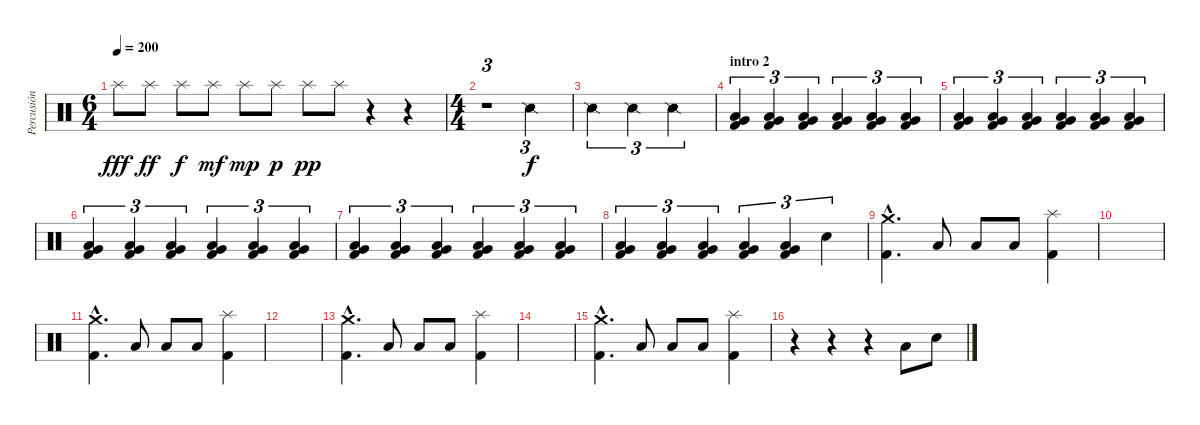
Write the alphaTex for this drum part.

\track ("Percusión" "Percusión") {instrument percussion}
\staff {score}
\articulation defaults
\ts (6 4)
\tempo 200
\clef neutral
\ks c "Splash (hit)".8{dy fff} "Splash (hit)".8{dy ff} "Splash (hit)".8{dy f} "Splash (hit)".8{dy mf} "Splash (hit)".8{dy mp} "Splash (hit)".8{dy p} "Splash (hit)".8{dy pp} "Splash (hit)".8
r.4 r.4 |
\ts (4 4)
r.1{tu (3 2)} "Snare (side stick) 2".2{tu (3 2) dy f} |
"Snare (side stick) 2".2{tu (3 2)} "Snare (side stick) 2".2{tu (3 2)} "Snare (side stick) 2".2{tu (3 2)} |
\section ("" "intro 2")
("Very Low Tom (hit)" "Low Floor Tom (hit)" "Kick (hit) 2").4{tu (3 2)} ("Very Low Tom (hit)" "Low Floor Tom (hit)" "Kick (hit) 2").4{tu (3 2)} ("Very Low Tom (hit)" "Low Floor Tom (hit)" "Kick (hit) 2").4{tu (3 2)} ("Very Low Tom (hit)" "Low Floor Tom (hit)" "Kick (hit) 2").4{tu (3 2)} ("Very Low Tom (hit)" "Low Floor Tom (hit)" "Kick (hit) 2").4{tu (3 2)} ("Very Low Tom (hit)" "Low Floor Tom (hit)" "Kick (hit) 2").4{tu (3 2)} |
("Very Low Tom (hit)" "Low Floor Tom (hit)" "Kick (hit) 2").4{tu (3 2)} ("Very Low Tom (hit)" "Low Floor Tom (hit)" "Kick (hit) 2").4{tu (3 2)} ("Very Low Tom (hit)" "Low Floor Tom (hit)" "Kick (hit) 2").4{tu (3 2)} ("Very Low Tom (hit)" "Low Floor Tom (hit)" "Kick (hit) 2").4{tu (3 2)} ("Very Low Tom (hit)" "Low Floor Tom (hit)" "Kick (hit) 2").4{tu (3 2)} ("Very Low Tom (hit)" "Low Floor Tom (hit)" "Kick (hit) 2").4{tu (3 2)} |
("Very Low Tom (hit)" "Low Floor Tom (hit)" "Kick (hit) 2").4{tu (3 2)} ("Very Low Tom (hit)" "Low Floor Tom (hit)" "Kick (hit) 2").4{tu (3 2)} ("Very Low Tom (hit)" "Low Floor Tom (hit)" "Kick (hit) 2").4{tu (3 2)} ("Very Low Tom (hit)" "Low Floor Tom (hit)" "Kick (hit) 2").4{tu (3 2)} ("Very Low Tom (hit)" "Low Floor Tom (hit)" "Kick (hit) 2").4{tu (3 2)} ("Very Low Tom (hit)" "Low Floor Tom (hit)" "Kick (hit) 2").4{tu (3 2)} |
("Very Low Tom (hit)" "Low Floor Tom (hit)" "Kick (hit) 2").4{tu (3 2)} ("Very Low Tom (hit)" "Low Floor Tom (hit)" "Kick (hit) 2").4{tu (3 2)} ("Very Low Tom (hit)" "Low Floor Tom (hit)" "Kick (hit) 2").4{tu (3 2)} ("Very Low Tom (hit)" "Low Floor Tom (hit)" "Kick (hit) 2").4{tu (3 2)} ("Very Low Tom (hit)" "Low Floor Tom (hit)" "Kick (hit) 2").4{tu (3 2)} ("Very Low Tom (hit)" "Low Floor Tom (hit)" "Kick (hit) 2").4{tu (3 2)} |
("Very Low Tom (hit)" "Low Floor Tom (hit)" "Kick (hit) 2").4{tu (3 2)} ("Very Low Tom (hit)" "Low Floor Tom (hit)" "Kick (hit) 2").4{tu (3 2)} ("Very Low Tom (hit)" "Low Floor Tom (hit)" "Kick (hit) 2").4{tu (3 2)} ("Very Low Tom (hit)" "Low Floor Tom (hit)" "Kick (hit) 2").4{tu (3 2)} ("Very Low Tom (hit)" "Low Floor Tom (hit)" "Kick (hit) 2").4{tu (3 2)} "Snare (hit) 2".4{tu (3 2)} |
("Crash medium (hit)"{hac} "Kick (hit) 2"{hac}).4{d} "Low Floor Tom (hit)".8 "Low Floor Tom (hit)".8 "Low Floor Tom (hit)".8 ("Splash (hit)" "Kick (hit) 2").4 |
|
("Crash medium (hit)"{hac} "Kick (hit) 2"{hac}).4{d} "Low Floor Tom (hit)".8 "Low Floor Tom (hit)".8 "Low Floor Tom (hit)".8 ("Splash (hit)" "Kick (hit) 2").4 |
|
("Crash medium (hit)"{hac} "Kick (hit) 2"{hac}).4{d} "Low Floor Tom (hit)".8 "Low Floor Tom (hit)".8 "Low Floor Tom (hit)".8 ("Splash (hit)" "Kick (hit) 2").4 |
|
("Crash medium (hit)"{hac} "Kick (hit) 2"{hac}).4{d} "Low Floor Tom (hit)".8 "Low Floor Tom (hit)".8 "Low Floor Tom (hit)".8 ("Splash (hit)" "Kick (hit) 2").4 |
r.4 r.4 r.4 "Low Tom (hit)".8 "Snare (hit) 2".8
